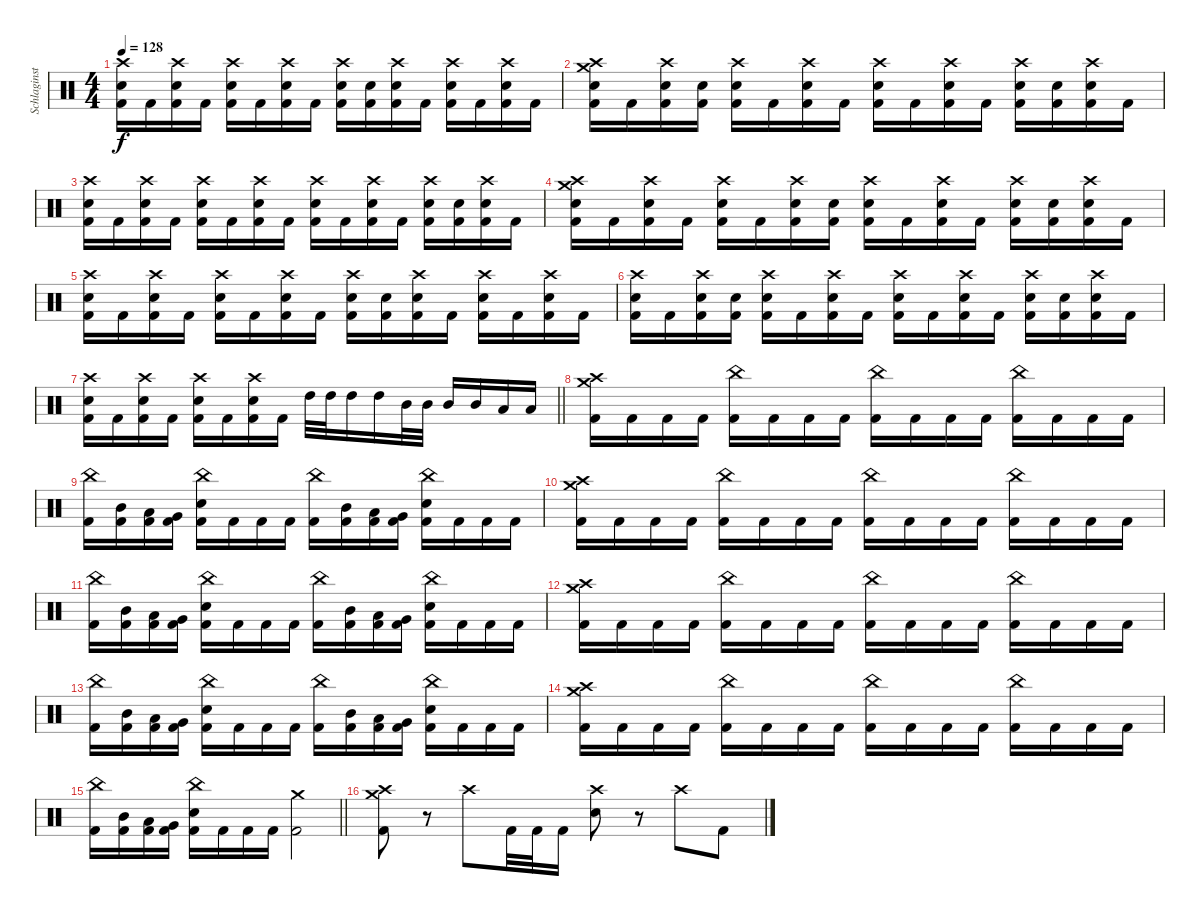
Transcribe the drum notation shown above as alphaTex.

\track ("Schlaginstrumente - Auswahl" "Schlaginst") {instrument percussion}
\staff {score}
\articulation defaults
\ts (4 4)
\tempo 128
\clef neutral
\ks c
("Crash high (hit)" "Electric Snare (hit)" "Kick (hit) 2").16{dy f} "Kick (hit) 2".16 ("Crash high (hit)" "Electric Snare (hit)" "Kick (hit) 2").16 "Kick (hit) 2".16 ("Crash high (hit)" "Electric Snare (hit)" "Kick (hit) 2").16 "Kick (hit) 2".16 ("Crash high (hit)" "Electric Snare (hit)" "Kick (hit) 2").16 "Kick (hit) 2".16 ("Crash high (hit)" "Electric Snare (hit)" "Kick (hit) 2").16 ("Electric Snare (hit)" "Kick (hit) 2").16 ("Crash high (hit)" "Electric Snare (hit)" "Kick (hit) 2").16 "Kick (hit) 2".16 ("Crash high (hit)" "Electric Snare (hit)" "Kick (hit) 2").16 "Kick (hit) 2".16 ("Crash high (hit)" "Electric Snare (hit)" "Kick (hit) 2").16 "Kick (hit) 2".16 |
("Crash medium (hit)" "Crash high (hit)" "Electric Snare (hit)" "Kick (hit) 2").16 "Kick (hit) 2".16 ("Crash high (hit)" "Electric Snare (hit)" "Kick (hit) 2").16 ("Electric Snare (hit)" "Kick (hit) 2").16 ("Crash high (hit)" "Electric Snare (hit)" "Kick (hit) 2").16 "Kick (hit) 2".16 ("Crash high (hit)" "Electric Snare (hit)" "Kick (hit) 2").16 "Kick (hit) 2".16 ("Crash high (hit)" "Electric Snare (hit)" "Kick (hit) 2").16 "Kick (hit) 2".16 ("Crash high (hit)" "Electric Snare (hit)" "Kick (hit) 2").16 "Kick (hit) 2".16 ("Crash high (hit)" "Electric Snare (hit)" "Kick (hit) 2").16 ("Electric Snare (hit)" "Kick (hit) 2").16 ("Crash high (hit)" "Electric Snare (hit)" "Kick (hit) 2").16 "Kick (hit) 2".16 |
("Crash high (hit)" "Electric Snare (hit)" "Kick (hit) 2").16 "Kick (hit) 2".16 ("Crash high (hit)" "Electric Snare (hit)" "Kick (hit) 2").16 "Kick (hit) 2".16 ("Crash high (hit)" "Electric Snare (hit)" "Kick (hit) 2").16 "Kick (hit) 2".16 ("Crash high (hit)" "Electric Snare (hit)" "Kick (hit) 2").16 "Kick (hit) 2".16 ("Crash high (hit)" "Electric Snare (hit)" "Kick (hit) 2").16 "Kick (hit) 2".16 ("Crash high (hit)" "Electric Snare (hit)" "Kick (hit) 2").16 "Kick (hit) 2".16 ("Crash high (hit)" "Electric Snare (hit)" "Kick (hit) 2").16 ("Electric Snare (hit)" "Kick (hit) 2").16 ("Crash high (hit)" "Electric Snare (hit)" "Kick (hit) 2").16 "Kick (hit) 2".16 |
("Crash medium (hit)" "Crash high (hit)" "Electric Snare (hit)" "Kick (hit) 2").16 "Kick (hit) 2".16 ("Crash high (hit)" "Electric Snare (hit)" "Kick (hit) 2").16 "Kick (hit) 2".16 ("Crash high (hit)" "Electric Snare (hit)" "Kick (hit) 2").16 "Kick (hit) 2".16 ("Crash high (hit)" "Electric Snare (hit)" "Kick (hit) 2").16 ("Electric Snare (hit)" "Kick (hit) 2").16 ("Crash high (hit)" "Electric Snare (hit)" "Kick (hit) 2").16 "Kick (hit) 2".16 ("Crash high (hit)" "Electric Snare (hit)" "Kick (hit) 2").16 "Kick (hit) 2".16 ("Crash high (hit)" "Electric Snare (hit)" "Kick (hit) 2").16 ("Electric Snare (hit)" "Kick (hit) 2").16 ("Crash high (hit)" "Electric Snare (hit)" "Kick (hit) 2").16 "Kick (hit) 2".16 |
("Crash high (hit)" "Electric Snare (hit)" "Kick (hit) 2").16 "Kick (hit) 2".16 ("Crash high (hit)" "Electric Snare (hit)" "Kick (hit) 2").16 "Kick (hit) 2".16 ("Crash high (hit)" "Electric Snare (hit)" "Kick (hit) 2").16 "Kick (hit) 2".16 ("Crash high (hit)" "Electric Snare (hit)" "Kick (hit) 2").16 "Kick (hit) 2".16 ("Crash high (hit)" "Electric Snare (hit)" "Kick (hit) 2").16 ("Electric Snare (hit)" "Kick (hit) 2").16 ("Crash high (hit)" "Electric Snare (hit)" "Kick (hit) 2").16 "Kick (hit) 2".16 ("Crash high (hit)" "Electric Snare (hit)" "Kick (hit) 2").16 "Kick (hit) 2".16 ("Crash high (hit)" "Electric Snare (hit)" "Kick (hit) 2").16 "Kick (hit) 2".16 |
("Crash high (hit)" "Electric Snare (hit)" "Kick (hit) 2").16 "Kick (hit) 2".16 ("Crash high (hit)" "Electric Snare (hit)" "Kick (hit) 2").16 ("Electric Snare (hit)" "Kick (hit) 2").16 ("Crash high (hit)" "Electric Snare (hit)" "Kick (hit) 2").16 "Kick (hit) 2".16 ("Crash high (hit)" "Electric Snare (hit)" "Kick (hit) 2").16 "Kick (hit) 2".16 ("Crash high (hit)" "Electric Snare (hit)" "Kick (hit) 2").16 "Kick (hit) 2".16 ("Crash high (hit)" "Electric Snare (hit)" "Kick (hit) 2").16 "Kick (hit) 2".16 ("Crash high (hit)" "Electric Snare (hit)" "Kick (hit) 2").16 ("Electric Snare (hit)" "Kick (hit) 2").16 ("Crash high (hit)" "Electric Snare (hit)" "Kick (hit) 2").16 "Kick (hit) 2".16 |
\barLineRight lightlight
("Crash high (hit)" "Electric Snare (hit)" "Kick (hit) 2").16 "Kick (hit) 2".16 ("Crash high (hit)" "Electric Snare (hit)" "Kick (hit) 2").16 "Kick (hit) 2".16 ("Crash high (hit)" "Electric Snare (hit)" "Kick (hit) 2").16 "Kick (hit) 2".16 ("Crash high (hit)" "Electric Snare (hit)" "Kick (hit) 2").16 "Kick (hit) 2".16 "High Tom (hit)".32 "High Tom (hit)".32 "High Tom (hit)".16 "High Tom (hit)".16 "Mid Tom (hit)".32 "Mid Tom (hit)".32 "Mid Tom (hit)".16 "Mid Tom (hit)".16 "Low Tom (hit)".16 "Low Tom (hit)".16 |
("Crash medium (hit)" "Crash high (hit)" "Kick (hit) 2").16 "Kick (hit) 2".16 "Kick (hit) 2".16 "Kick (hit) 2".16 ("China (hit)" "Kick (hit) 2").16 "Kick (hit) 2".16 "Kick (hit) 2".16 "Kick (hit) 2".16 ("China (hit)" "Kick (hit) 2").16 "Kick (hit) 2".16 "Kick (hit) 2".16 "Kick (hit) 2".16 ("China (hit)" "Kick (hit) 2").16 "Kick (hit) 2".16 "Kick (hit) 2".16 "Kick (hit) 2".16 |
("China (hit)" "Kick (hit) 2").16 ("Mid Tom (hit)" "Kick (hit) 2").16 ("Low Tom (hit)" "Kick (hit) 2").16 ("Very Low Tom (hit)" "Kick (hit) 2").16 ("China (hit)" "Electric Snare (hit)" "Kick (hit) 2").16 "Kick (hit) 2".16 "Kick (hit) 2".16 "Kick (hit) 2".16 ("China (hit)" "Kick (hit) 2").16 ("Mid Tom (hit)" "Kick (hit) 2").16 ("Low Tom (hit)" "Kick (hit) 2").16 ("Very Low Tom (hit)" "Kick (hit) 2").16 ("China (hit)" "Electric Snare (hit)" "Kick (hit) 2").16 "Kick (hit) 2".16 "Kick (hit) 2".16 "Kick (hit) 2".16 |
("Crash medium (hit)" "Crash high (hit)" "Kick (hit) 2").16 "Kick (hit) 2".16 "Kick (hit) 2".16 "Kick (hit) 2".16 ("China (hit)" "Kick (hit) 2").16 "Kick (hit) 2".16 "Kick (hit) 2".16 "Kick (hit) 2".16 ("China (hit)" "Kick (hit) 2").16 "Kick (hit) 2".16 "Kick (hit) 2".16 "Kick (hit) 2".16 ("China (hit)" "Kick (hit) 2").16 "Kick (hit) 2".16 "Kick (hit) 2".16 "Kick (hit) 2".16 |
("China (hit)" "Kick (hit) 2").16 ("Mid Tom (hit)" "Kick (hit) 2").16 ("Low Tom (hit)" "Kick (hit) 2").16 ("Very Low Tom (hit)" "Kick (hit) 2").16 ("China (hit)" "Electric Snare (hit)" "Kick (hit) 2").16 "Kick (hit) 2".16 "Kick (hit) 2".16 "Kick (hit) 2".16 ("China (hit)" "Kick (hit) 2").16 ("Mid Tom (hit)" "Kick (hit) 2").16 ("Low Tom (hit)" "Kick (hit) 2").16 ("Very Low Tom (hit)" "Kick (hit) 2").16 ("China (hit)" "Electric Snare (hit)" "Kick (hit) 2").16 "Kick (hit) 2".16 "Kick (hit) 2".16 "Kick (hit) 2".16 |
("Crash medium (hit)" "Crash high (hit)" "Kick (hit) 2").16 "Kick (hit) 2".16 "Kick (hit) 2".16 "Kick (hit) 2".16 ("China (hit)" "Kick (hit) 2").16 "Kick (hit) 2".16 "Kick (hit) 2".16 "Kick (hit) 2".16 ("China (hit)" "Kick (hit) 2").16 "Kick (hit) 2".16 "Kick (hit) 2".16 "Kick (hit) 2".16 ("China (hit)" "Kick (hit) 2").16 "Kick (hit) 2".16 "Kick (hit) 2".16 "Kick (hit) 2".16 |
("China (hit)" "Kick (hit) 2").16 ("Mid Tom (hit)" "Kick (hit) 2").16 ("Low Tom (hit)" "Kick (hit) 2").16 ("Very Low Tom (hit)" "Kick (hit) 2").16 ("China (hit)" "Electric Snare (hit)" "Kick (hit) 2").16 "Kick (hit) 2".16 "Kick (hit) 2".16 "Kick (hit) 2".16 ("China (hit)" "Kick (hit) 2").16 ("Mid Tom (hit)" "Kick (hit) 2").16 ("Low Tom (hit)" "Kick (hit) 2").16 ("Very Low Tom (hit)" "Kick (hit) 2").16 ("China (hit)" "Electric Snare (hit)" "Kick (hit) 2").16 "Kick (hit) 2".16 "Kick (hit) 2".16 "Kick (hit) 2".16 |
("Crash medium (hit)" "Crash high (hit)" "Kick (hit) 2").16 "Kick (hit) 2".16 "Kick (hit) 2".16 "Kick (hit) 2".16 ("China (hit)" "Kick (hit) 2").16 "Kick (hit) 2".16 "Kick (hit) 2".16 "Kick (hit) 2".16 ("China (hit)" "Kick (hit) 2").16 "Kick (hit) 2".16 "Kick (hit) 2".16 "Kick (hit) 2".16 ("China (hit)" "Kick (hit) 2").16 "Kick (hit) 2".16 "Kick (hit) 2".16 "Kick (hit) 2".16 |
\barLineRight lightlight
("China (hit)" "Kick (hit) 2").16 ("Mid Tom (hit)" "Kick (hit) 2").16 ("Low Tom (hit)" "Kick (hit) 2").16 ("Very Low Tom (hit)" "Kick (hit) 2").16 ("China (hit)" "Electric Snare (hit)" "Kick (hit) 2").16 "Kick (hit) 2".16 "Kick (hit) 2".16 "Kick (hit) 2".16 ("Crash medium (hit)" "Kick (hit) 2").2 |
("Crash medium (hit)" "Crash high (hit)" "Kick (hit) 2").8 r.8 "Crash high (hit)".8 "Kick (hit) 2".32 "Kick (hit) 2".32 "Kick (hit) 2".16 ("Crash high (hit)" "Electric Snare (hit)").8 r.8 "Crash high (hit)".8 "Kick (hit) 2".8
